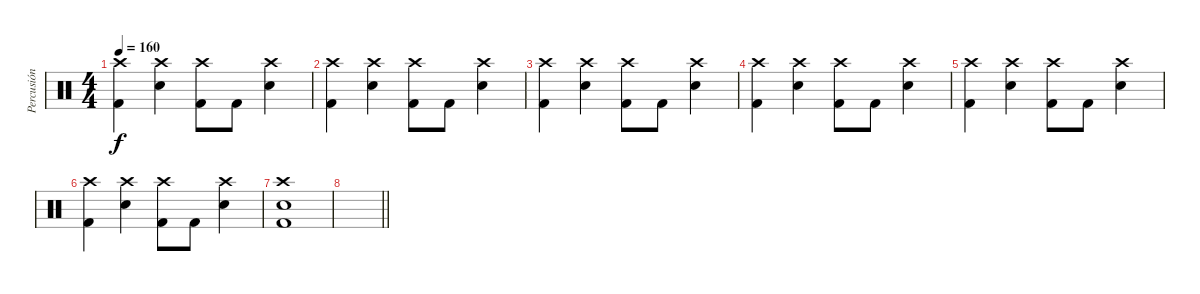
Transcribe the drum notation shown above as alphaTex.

\track ("Percusión" "Percusión") {instrument percussion}
\staff {score}
\articulation defaults
\ts (4 4)
\tempo 160
\clef neutral
\ks c
("Crash high (hit)" "Kick (hit) 2").4{dy f} ("Crash high (hit)" "Electric Snare (hit)").4 ("Crash high (hit)" "Kick (hit) 2").8 "Kick (hit) 2".8 ("Crash high (hit)" "Electric Snare (hit)").4 |
("Crash high (hit)" "Kick (hit) 2").4 ("Crash high (hit)" "Electric Snare (hit)").4 ("Crash high (hit)" "Kick (hit) 2").8 "Kick (hit) 2".8 ("Crash high (hit)" "Electric Snare (hit)").4 |
("Crash high (hit)" "Kick (hit) 2").4 ("Crash high (hit)" "Electric Snare (hit)").4 ("Crash high (hit)" "Kick (hit) 2").8 "Kick (hit) 2".8 ("Crash high (hit)" "Electric Snare (hit)").4 |
("Crash high (hit)" "Kick (hit) 2").4 ("Crash high (hit)" "Electric Snare (hit)").4 ("Crash high (hit)" "Kick (hit) 2").8 "Kick (hit) 2".8 ("Crash high (hit)" "Electric Snare (hit)").4 |
("Crash high (hit)" "Kick (hit) 2").4 ("Crash high (hit)" "Electric Snare (hit)").4 ("Crash high (hit)" "Kick (hit) 2").8 "Kick (hit) 2".8 ("Crash high (hit)" "Electric Snare (hit)").4 |
("Crash high (hit)" "Kick (hit) 2").4 ("Crash high (hit)" "Electric Snare (hit)").4 ("Crash high (hit)" "Kick (hit) 2").8 "Kick (hit) 2".8 ("Crash high (hit)" "Electric Snare (hit)").4 |
("Crash high (hit)" "Electric Snare (hit)" "Kick (hit) 2").1 |
\barLineRight lightlight
